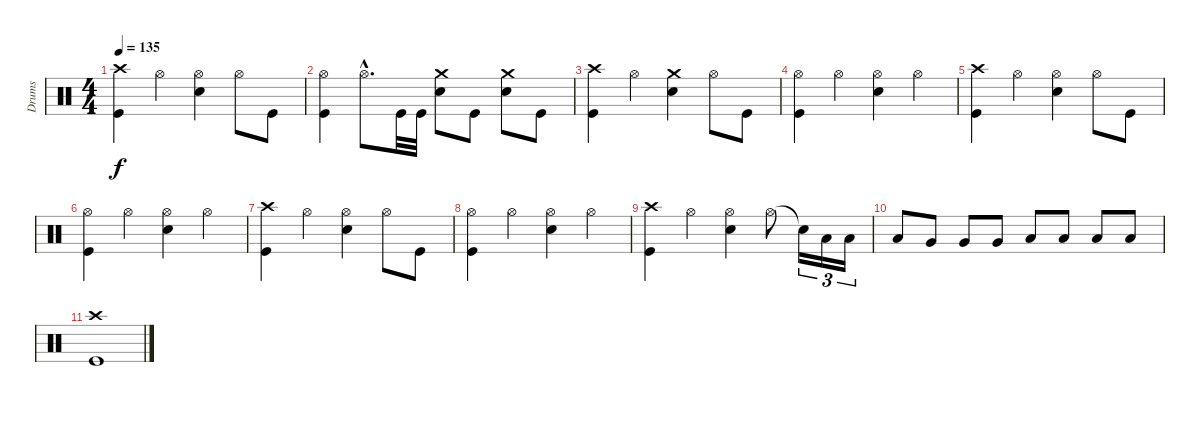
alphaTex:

\track ("Drums" "Drums") {instrument percussion}
\staff {score}
\articulation defaults
\ts (4 4)
\tempo 135
\clef neutral
\ks c
("Kick (hit)" "Crash high (hit)").4{dy f} "Hi-Hat (open)".4 ("Hi-Hat (open)" "Snare (hit) 2").4 "Hi-Hat (open)".8 "Kick (hit)".8 |
("Kick (hit)" "Hi-Hat (open)").4 "Hi-Hat (open)"{hac}.8{d} "Kick (hit)".32 "Kick (hit)".32 ("Crash medium (hit)" "Snare (hit) 2").8 "Kick (hit)".8 ("Crash medium (hit)" "Snare (hit) 2").8 "Kick (hit)".8 |
("Kick (hit)" "Crash high (hit)").4 "Hi-Hat (open)".4 ("Crash medium (hit)" "Snare (hit) 2").4 "Hi-Hat (open)".8 "Kick (hit)".8 |
("Kick (hit)" "Hi-Hat (open)").4 "Hi-Hat (open)".4 ("Hi-Hat (open)" "Snare (hit) 2").4 "Hi-Hat (open)".4 |
("Kick (hit)" "Crash high (hit)").4 "Hi-Hat (open)".4 ("Hi-Hat (open)" "Snare (hit) 2").4 "Hi-Hat (open)".8 "Kick (hit)".8 |
("Kick (hit)" "Hi-Hat (open)").4 "Hi-Hat (open)".4 ("Hi-Hat (open)" "Snare (hit) 2").4 "Hi-Hat (open)".4 |
("Kick (hit)" "Crash high (hit)").4 "Hi-Hat (open)".4 ("Hi-Hat (open)" "Snare (hit) 2").4 "Hi-Hat (open)".8 "Kick (hit)".8 |
("Kick (hit)" "Hi-Hat (open)").4 "Hi-Hat (open)".4 ("Hi-Hat (open)" "Snare (hit) 2").4 "Hi-Hat (open)".4 |
("Kick (hit)" "Crash high (hit)").4 "Hi-Hat (open)".4 ("Hi-Hat (open)" "Snare (hit) 2").4 "Hi-Hat (open)".8 "Snare (hit)"{t}.16{tu (3 2)} "Low Tom (hit)".16{tu (3 2)} "Low Tom (hit)".16{tu (3 2)} |
"Low Tom (hit)".8 "Very Low Tom (hit)".8 "Very Low Tom (hit)".8 "Very Low Tom (hit)".8 "Low Floor Tom (hit)".8 "Low Floor Tom (hit)".8 "Low Floor Tom (hit)".8 "Low Floor Tom (hit)".8 |
("Kick (hit)" "Crash high (hit)").1
